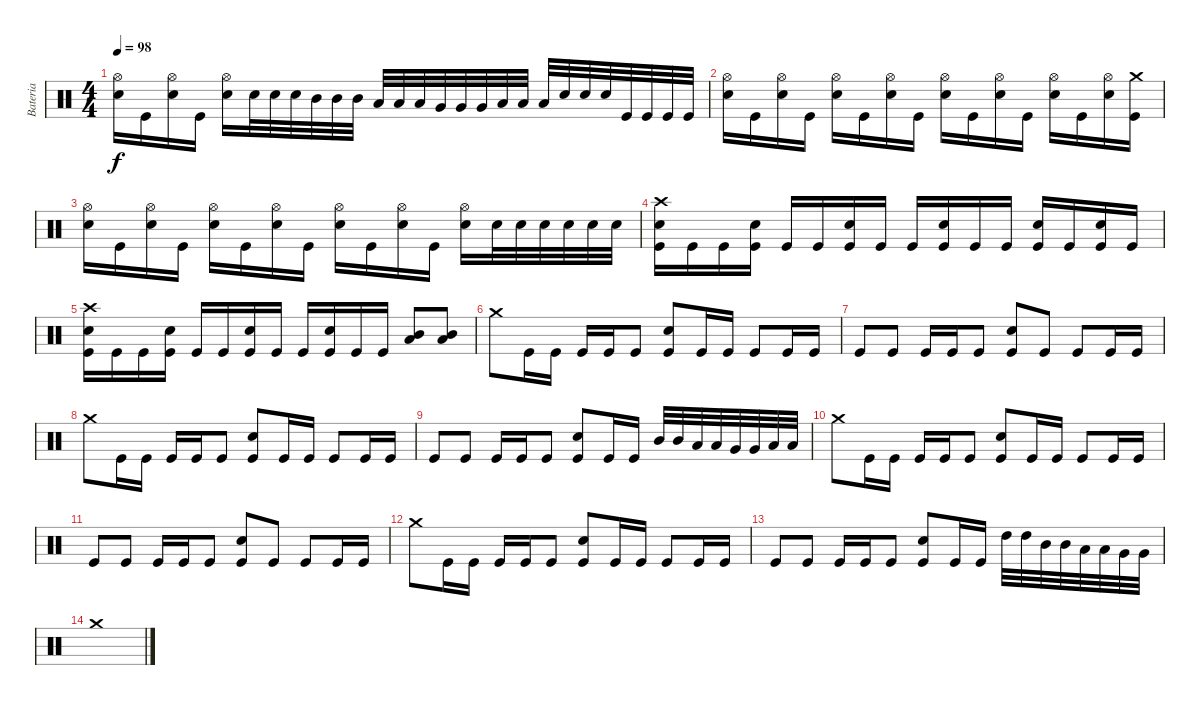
\track ("Bateria" "Bateria") {instrument percussion}
\staff {score}
\articulation defaults
\ts (4 4)
\tempo 98
\clef neutral
\ks c
("Electric Snare (hit)" "Hi-Hat (open)").16{dy f} "Kick (hit)".16 ("Electric Snare (hit)" "Hi-Hat (open)").16 "Kick (hit)".16 ("Electric Snare (hit)" "Hi-Hat (open)").16 "Electric Snare (hit)".32 "Electric Snare (hit)".32 "Electric Snare (hit)".32 "Mid Tom (hit)".32 "Mid Tom (hit)".32 "Mid Tom (hit)".32 "Low Tom (hit)".32 "Low Tom (hit)".32 "Low Tom (hit)".32 "Very Low Tom (hit)".32 "Very Low Tom (hit)".32 "Very Low Tom (hit)".32 "Low Floor Tom (hit)".32 "Low Floor Tom (hit)".32 "Low Floor Tom (hit)".32 "Electric Snare (hit)".32 "Electric Snare (hit)".32 "Electric Snare (hit)".32 "Kick (hit)".32 "Kick (hit)".32 "Kick (hit)".32 "Kick (hit)".32 |
("Electric Snare (hit)" "Hi-Hat (open)").16 "Kick (hit)".16 ("Electric Snare (hit)" "Hi-Hat (open)").16 "Kick (hit)".16 ("Electric Snare (hit)" "Hi-Hat (open)").16 "Kick (hit)".16 ("Electric Snare (hit)" "Hi-Hat (open)").16 "Kick (hit)".16 ("Electric Snare (hit)" "Hi-Hat (open)").16 "Kick (hit)".16 ("Electric Snare (hit)" "Hi-Hat (open)").16 "Kick (hit)".16 ("Electric Snare (hit)" "Hi-Hat (open)").16 "Kick (hit)".16 ("Electric Snare (hit)" "Hi-Hat (open)").16 ("Crash medium (hit)" "Kick (hit)").16 |
("Electric Snare (hit)" "Hi-Hat (open)").16 "Kick (hit)".16 ("Electric Snare (hit)" "Hi-Hat (open)").16 "Kick (hit)".16 ("Electric Snare (hit)" "Hi-Hat (open)").16 "Kick (hit)".16 ("Electric Snare (hit)" "Hi-Hat (open)").16 "Kick (hit)".16 ("Electric Snare (hit)" "Hi-Hat (open)").16 "Kick (hit)".16 ("Electric Snare (hit)" "Hi-Hat (open)").16 "Kick (hit)".16 ("Electric Snare (hit)" "Hi-Hat (open)").16 "Electric Snare (hit)".32 "Electric Snare (hit)".32 "Electric Snare (hit)".32 "Electric Snare (hit)".32 "Electric Snare (hit)".32 "Electric Snare (hit)".32 |
("Crash high (hit)" "Electric Snare (hit)" "Kick (hit)").16 "Kick (hit)".16 "Kick (hit)".16 ("Electric Snare (hit)" "Kick (hit)").16 "Kick (hit)".16 "Kick (hit)".16 ("Electric Snare (hit)" "Kick (hit)").16 "Kick (hit)".16 "Kick (hit)".16 ("Electric Snare (hit)" "Kick (hit)").16 "Kick (hit)".16 "Kick (hit)".16 ("Electric Snare (hit)" "Kick (hit)").16 "Kick (hit)".16 ("Electric Snare (hit)" "Kick (hit)").16 "Kick (hit)".16 |
("Crash high (hit)" "Electric Snare (hit)" "Kick (hit)").16 "Kick (hit)".16 "Kick (hit)".16 ("Electric Snare (hit)" "Kick (hit)").16 "Kick (hit)".16 "Kick (hit)".16 ("Electric Snare (hit)" "Kick (hit)").16 "Kick (hit)".16 "Kick (hit)".16 ("Electric Snare (hit)" "Kick (hit)").16 "Kick (hit)".16 "Kick (hit)".16 ("Low Floor Tom (hit)" "Mid Tom (hit)").8 ("Low Floor Tom (hit)" "Mid Tom (hit)").8 |
"Crash medium (hit)".8 "Kick (hit)".16 "Kick (hit)".16 "Kick (hit)".16 "Kick (hit)".16 "Kick (hit)".8 ("Electric Snare (hit)" "Kick (hit)").8 "Kick (hit)".16 "Kick (hit)".16 "Kick (hit)".8 "Kick (hit)".16 "Kick (hit)".16 |
"Kick (hit)".8 "Kick (hit)".8 "Kick (hit)".16 "Kick (hit)".16 "Kick (hit)".8 ("Electric Snare (hit)" "Kick (hit)").8 "Kick (hit)".8 "Kick (hit)".8 "Kick (hit)".16 "Kick (hit)".16 |
"Crash medium (hit)".8 "Kick (hit)".16 "Kick (hit)".16 "Kick (hit)".16 "Kick (hit)".16 "Kick (hit)".8 ("Electric Snare (hit)" "Kick (hit)").8 "Kick (hit)".16 "Kick (hit)".16 "Kick (hit)".8 "Kick (hit)".16 "Kick (hit)".16 |
"Kick (hit)".8 "Kick (hit)".8 "Kick (hit)".16 "Kick (hit)".16 "Kick (hit)".8 ("Electric Snare (hit)" "Kick (hit)").8 "Kick (hit)".16 "Kick (hit)".16 "Mid Tom (hit)".32 "Mid Tom (hit)".32 "Low Tom (hit)".32 "Low Tom (hit)".32 "Very Low Tom (hit)".32 "Very Low Tom (hit)".32 "Low Floor Tom (hit)".32 "Low Floor Tom (hit)".32 |
"Crash medium (hit)".8 "Kick (hit)".16 "Kick (hit)".16 "Kick (hit)".16 "Kick (hit)".16 "Kick (hit)".8 ("Electric Snare (hit)" "Kick (hit)").8 "Kick (hit)".16 "Kick (hit)".16 "Kick (hit)".8 "Kick (hit)".16 "Kick (hit)".16 |
"Kick (hit)".8 "Kick (hit)".8 "Kick (hit)".16 "Kick (hit)".16 "Kick (hit)".8 ("Electric Snare (hit)" "Kick (hit)").8 "Kick (hit)".8 "Kick (hit)".8 "Kick (hit)".16 "Kick (hit)".16 |
"Crash medium (hit)".8 "Kick (hit)".16 "Kick (hit)".16 "Kick (hit)".16 "Kick (hit)".16 "Kick (hit)".8 ("Electric Snare (hit)" "Kick (hit)").8 "Kick (hit)".16 "Kick (hit)".16 "Kick (hit)".8 "Kick (hit)".16 "Kick (hit)".16 |
"Kick (hit)".8 "Kick (hit)".8 "Kick (hit)".16 "Kick (hit)".16 "Kick (hit)".8 ("Electric Snare (hit)" "Kick (hit)").8 "Kick (hit)".16 "Kick (hit)".16 "High Tom (hit)".32 "High Tom (hit)".32 "Mid Tom (hit)".32 "Mid Tom (hit)".32 "Low Tom (hit)".32 "Low Tom (hit)".32 "Very Low Tom (hit)".32 "Very Low Tom (hit)".32 |
"Crash medium (hit)".1
